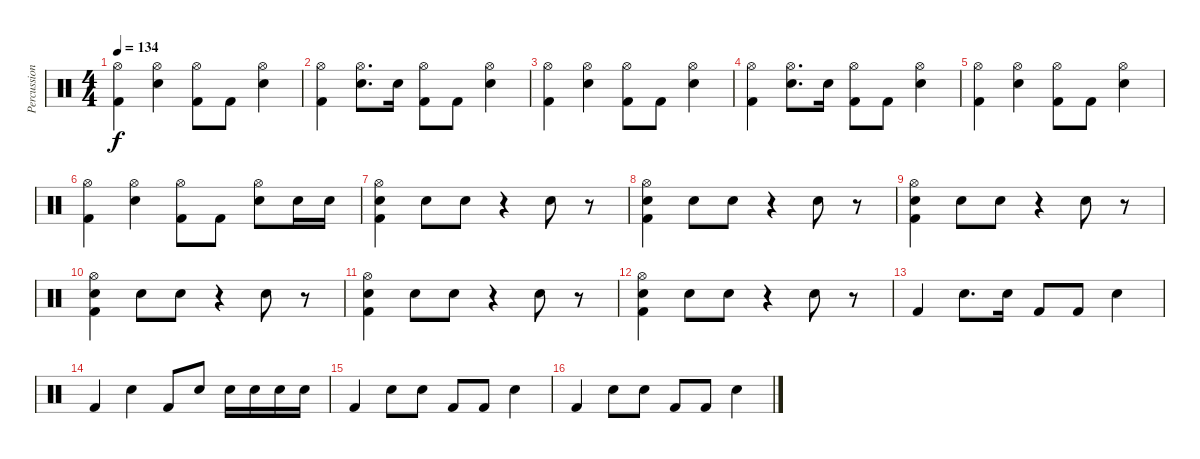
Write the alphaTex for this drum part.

\track ("Percussion" "Percussion") {instrument percussion}
\staff {score}
\articulation defaults
\ts (4 4)
\tempo 134
\clef neutral
\ks c
("Hi-Hat (open)" "Kick (hit) 2").4{dy f} ("Hi-Hat (open)" "Electric Snare (hit)").4 ("Hi-Hat (open)" "Kick (hit) 2").8 "Kick (hit) 2".8 ("Hi-Hat (open)" "Electric Snare (hit)").4 |
("Hi-Hat (open)" "Kick (hit) 2").4 ("Hi-Hat (open)" "Electric Snare (hit)").8{d} "Electric Snare (hit)".16 ("Hi-Hat (open)" "Kick (hit) 2").8 "Kick (hit) 2".8 ("Hi-Hat (open)" "Electric Snare (hit)").4 |
("Hi-Hat (open)" "Kick (hit) 2").4 ("Hi-Hat (open)" "Electric Snare (hit)").4 ("Hi-Hat (open)" "Kick (hit) 2").8 "Kick (hit) 2".8 ("Hi-Hat (open)" "Electric Snare (hit)").4 |
("Hi-Hat (open)" "Kick (hit) 2").4 ("Hi-Hat (open)" "Electric Snare (hit)").8{d} "Electric Snare (hit)".16 ("Hi-Hat (open)" "Kick (hit) 2").8 "Kick (hit) 2".8 ("Hi-Hat (open)" "Electric Snare (hit)").4 |
("Hi-Hat (open)" "Kick (hit) 2").4 ("Hi-Hat (open)" "Electric Snare (hit)").4 ("Hi-Hat (open)" "Kick (hit) 2").8 "Kick (hit) 2".8 ("Hi-Hat (open)" "Electric Snare (hit)").4 |
("Hi-Hat (open)" "Kick (hit) 2").4 ("Hi-Hat (open)" "Electric Snare (hit)").4 ("Hi-Hat (open)" "Kick (hit) 2").8 "Kick (hit) 2".8 ("Hi-Hat (open)" "Electric Snare (hit)").8 "Electric Snare (hit)".16 "Electric Snare (hit)".16 |
("Hi-Hat (open)" "Electric Snare (hit)" "Kick (hit) 2").4 "Hand Clap (hit)".8 "Hand Clap (hit)".8 r.4 "Hand Clap (hit)".8 r.8 |
("Hi-Hat (open)" "Electric Snare (hit)" "Kick (hit) 2").4 "Hand Clap (hit)".8 "Hand Clap (hit)".8 r.4 "Hand Clap (hit)".8 r.8 |
("Hi-Hat (open)" "Electric Snare (hit)" "Kick (hit) 2").4 "Hand Clap (hit)".8 "Hand Clap (hit)".8 r.4 "Hand Clap (hit)".8 r.8 |
("Hi-Hat (open)" "Electric Snare (hit)" "Kick (hit) 2").4 "Hand Clap (hit)".8 "Hand Clap (hit)".8 r.4 "Hand Clap (hit)".8 r.8 |
("Hi-Hat (open)" "Electric Snare (hit)" "Kick (hit) 2").4 "Hand Clap (hit)".8 "Hand Clap (hit)".8 r.4 "Hand Clap (hit)".8 r.8 |
("Hi-Hat (open)" "Electric Snare (hit)" "Kick (hit) 2").4 "Hand Clap (hit)".8 "Hand Clap (hit)".8 r.4 "Hand Clap (hit)".8 r.8 |
"Kick (hit) 2".4 "Electric Snare (hit)".8{d} "Electric Snare (hit)".16 "Kick (hit) 2".8 "Kick (hit) 2".8 "Electric Snare (hit)".4 |
"Kick (hit) 2".4 "Electric Snare (hit)".4 "Kick (hit) 2".8 "Electric Snare (hit)".8 "Electric Snare (hit)".16 "Electric Snare (hit)".16 "Electric Snare (hit)".16 "Electric Snare (hit)".16 |
"Kick (hit) 2".4 "Electric Snare (hit)".8 "Electric Snare (hit)".8 "Kick (hit) 2".8 "Kick (hit) 2".8 "Electric Snare (hit)".4 |
"Kick (hit) 2".4 "Electric Snare (hit)".8 "Electric Snare (hit)".8 "Kick (hit) 2".8 "Kick (hit) 2".8 "Electric Snare (hit)".4
